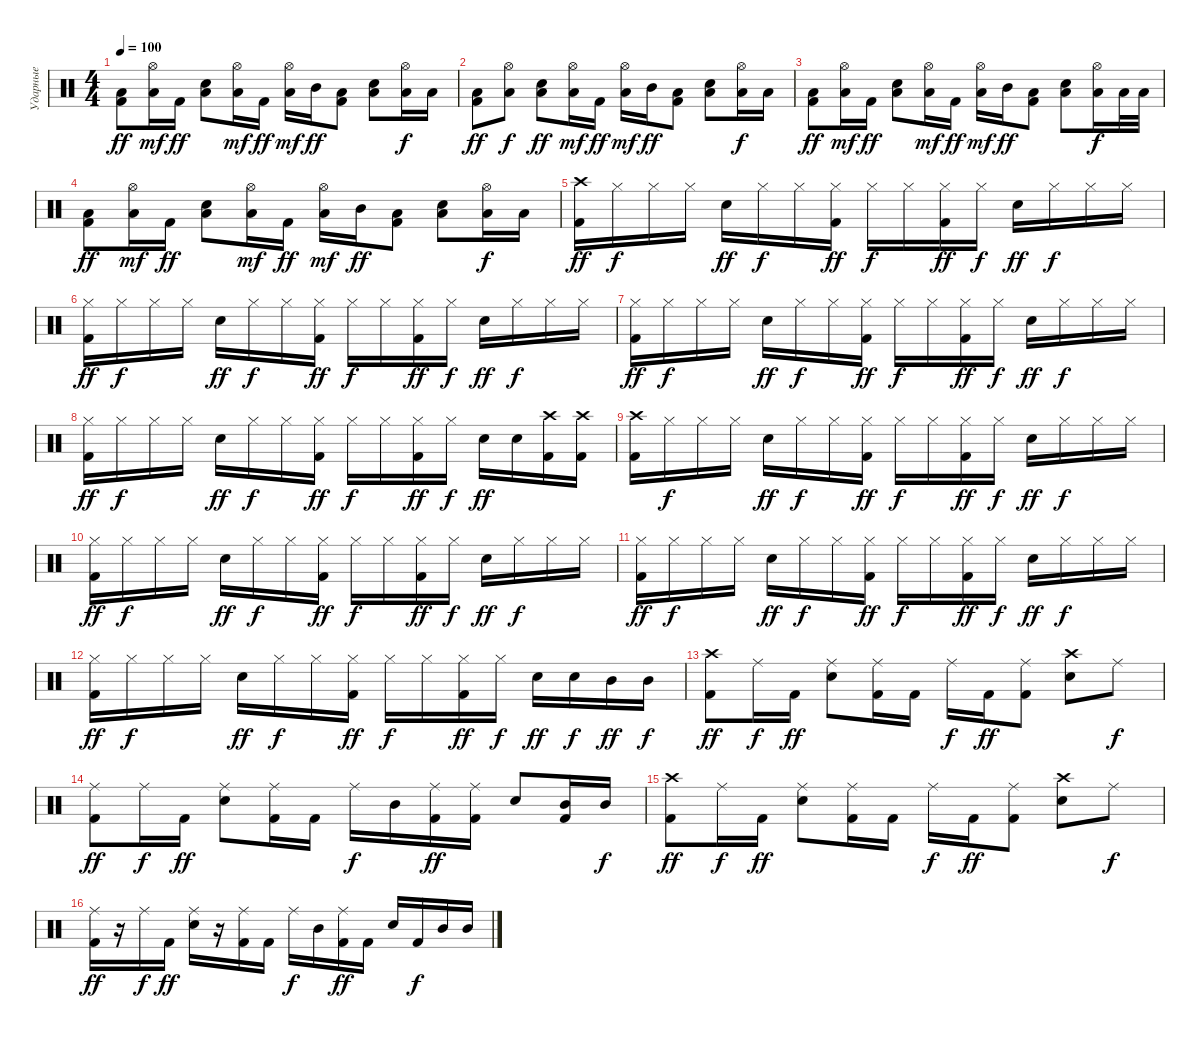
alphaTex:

\track ("Ударные" "Ударные") {instrument percussion}
\staff {score}
\articulation defaults
\ts (4 4)
\tempo 100
\clef neutral
\ks c
("Low Tom (hit)" "Kick (hit) 2").8{dy ff} ("Hi-Hat (open)" "Low Tom (hit)").16{dy mf} "Kick (hit) 2".16{dy ff} ("Low Tom (hit)" "Snare (hit) 2").8 ("Hi-Hat (open)" "Low Tom (hit)").16{dy mf} "Kick (hit) 2".16{dy ff} ("Hi-Hat (open)" "Low Tom (hit)").16{dy mf} "Mid Tom (hit)".16{dy ff} ("Low Tom (hit)" "Kick (hit) 2").8 ("Low Tom (hit)" "Snare (hit) 2").8 ("Hi-Hat (open)" "Low Tom (hit)").16{dy f} "Low Tom (hit)".16 |
("Low Tom (hit)" "Kick (hit) 2").8{dy ff} ("Hi-Hat (open)" "Low Tom (hit)").8{dy f} ("Low Tom (hit)" "Snare (hit) 2").8{dy ff} ("Hi-Hat (open)" "Low Tom (hit)").16{dy mf} "Kick (hit) 2".16{dy ff} ("Hi-Hat (open)" "Low Tom (hit)").16{dy mf} "Mid Tom (hit)".16{dy ff} ("Low Tom (hit)" "Kick (hit) 2").8 ("Low Tom (hit)" "Snare (hit) 2").8 ("Hi-Hat (open)" "Low Tom (hit)").16{dy f} "Low Tom (hit)".16 |
("Low Tom (hit)" "Kick (hit) 2").8{dy ff} ("Hi-Hat (open)" "Low Tom (hit)").16{dy mf} "Kick (hit) 2".16{dy ff} ("Low Tom (hit)" "Snare (hit) 2").8 ("Hi-Hat (open)" "Low Tom (hit)").16{dy mf} "Kick (hit) 2".16{dy ff} ("Hi-Hat (open)" "Low Tom (hit)").16{dy mf} "Mid Tom (hit)".16{dy ff} ("Low Tom (hit)" "Kick (hit) 2").8 ("Low Tom (hit)" "Snare (hit) 2").8 ("Hi-Hat (open)" "Low Tom (hit)").16{dy f} "Low Tom (hit)".32 "Low Tom (hit)".32 |
("Low Tom (hit)" "Kick (hit) 2").8{dy ff} ("Hi-Hat (open)" "Low Tom (hit)").16{dy mf} "Kick (hit) 2".16{dy ff} ("Low Tom (hit)" "Snare (hit) 2").8 ("Hi-Hat (open)" "Low Tom (hit)").16{dy mf} "Kick (hit) 2".16{dy ff} ("Hi-Hat (open)" "Low Tom (hit)").16{dy mf} "Mid Tom (hit)".16{dy ff} ("Low Tom (hit)" "Kick (hit) 2").8 ("Low Tom (hit)" "Snare (hit) 2").8 ("Hi-Hat (open)" "Low Floor Tom (hit)").16{dy f} "Low Floor Tom (hit)".16 |
("Crash high (hit)" "Kick (hit) 2").16{dy ff} "Hi-Hat (closed)".16{dy f} "Hi-Hat (closed)".16 "Hi-Hat (closed)".16 "Snare (hit) 2".16{dy ff} "Hi-Hat (closed)".16{dy f} "Hi-Hat (closed)".16 ("Hi-Hat (closed)" "Kick (hit) 2").16{dy ff} "Hi-Hat (closed)".16{dy f} "Hi-Hat (closed)".16 ("Hi-Hat (closed)" "Kick (hit) 2").16{dy ff} "Hi-Hat (closed)".16{dy f} "Snare (hit) 2".16{dy ff} "Hi-Hat (closed)".16{dy f} "Hi-Hat (closed)".16 "Hi-Hat (closed)".16 |
("Hi-Hat (closed)" "Kick (hit) 2").16{dy ff} "Hi-Hat (closed)".16{dy f} "Hi-Hat (closed)".16 "Hi-Hat (closed)".16 "Snare (hit) 2".16{dy ff} "Hi-Hat (closed)".16{dy f} "Hi-Hat (closed)".16 ("Hi-Hat (closed)" "Kick (hit) 2").16{dy ff} "Hi-Hat (closed)".16{dy f} "Hi-Hat (closed)".16 ("Hi-Hat (closed)" "Kick (hit) 2").16{dy ff} "Hi-Hat (closed)".16{dy f} "Snare (hit) 2".16{dy ff} "Hi-Hat (closed)".16{dy f} "Hi-Hat (closed)".16 "Hi-Hat (closed)".16 |
("Hi-Hat (closed)" "Kick (hit) 2").16{dy ff} "Hi-Hat (closed)".16{dy f} "Hi-Hat (closed)".16 "Hi-Hat (closed)".16 "Snare (hit) 2".16{dy ff} "Hi-Hat (closed)".16{dy f} "Hi-Hat (closed)".16 ("Hi-Hat (closed)" "Kick (hit) 2").16{dy ff} "Hi-Hat (closed)".16{dy f} "Hi-Hat (closed)".16 ("Hi-Hat (closed)" "Kick (hit) 2").16{dy ff} "Hi-Hat (closed)".16{dy f} "Snare (hit) 2".16{dy ff} "Hi-Hat (closed)".16{dy f} "Hi-Hat (closed)".16 "Hi-Hat (closed)".16 |
("Hi-Hat (closed)" "Kick (hit) 2").16{dy ff} "Hi-Hat (closed)".16{dy f} "Hi-Hat (closed)".16 "Hi-Hat (closed)".16 "Snare (hit) 2".16{dy ff} "Hi-Hat (closed)".16{dy f} "Hi-Hat (closed)".16 ("Hi-Hat (closed)" "Kick (hit) 2").16{dy ff} "Hi-Hat (closed)".16{dy f} "Hi-Hat (closed)".16 ("Hi-Hat (closed)" "Kick (hit) 2").16{dy ff} "Hi-Hat (closed)".16{dy f} "Snare (hit) 2".16{dy ff} "Snare (hit) 2".16 ("Crash high (hit)" "Kick (hit) 2").16 ("Crash high (hit)" "Kick (hit) 2").16 |
("Crash high (hit)" "Kick (hit) 2").16 "Hi-Hat (closed)".16{dy f} "Hi-Hat (closed)".16 "Hi-Hat (closed)".16 "Snare (hit) 2".16{dy ff} "Hi-Hat (closed)".16{dy f} "Hi-Hat (closed)".16 ("Hi-Hat (closed)" "Kick (hit) 2").16{dy ff} "Hi-Hat (closed)".16{dy f} "Hi-Hat (closed)".16 ("Hi-Hat (closed)" "Kick (hit) 2").16{dy ff} "Hi-Hat (closed)".16{dy f} "Snare (hit) 2".16{dy ff} "Hi-Hat (closed)".16{dy f} "Hi-Hat (closed)".16 "Hi-Hat (closed)".16 |
("Hi-Hat (closed)" "Kick (hit) 2").16{dy ff} "Hi-Hat (closed)".16{dy f} "Hi-Hat (closed)".16 "Hi-Hat (closed)".16 "Snare (hit) 2".16{dy ff} "Hi-Hat (closed)".16{dy f} "Hi-Hat (closed)".16 ("Hi-Hat (closed)" "Kick (hit) 2").16{dy ff} "Hi-Hat (closed)".16{dy f} "Hi-Hat (closed)".16 ("Hi-Hat (closed)" "Kick (hit) 2").16{dy ff} "Hi-Hat (closed)".16{dy f} "Snare (hit) 2".16{dy ff} "Hi-Hat (closed)".16{dy f} "Hi-Hat (closed)".16 "Hi-Hat (closed)".16 |
("Hi-Hat (closed)" "Kick (hit) 2").16{dy ff} "Hi-Hat (closed)".16{dy f} "Hi-Hat (closed)".16 "Hi-Hat (closed)".16 "Snare (hit) 2".16{dy ff} "Hi-Hat (closed)".16{dy f} "Hi-Hat (closed)".16 ("Hi-Hat (closed)" "Kick (hit) 2").16{dy ff} "Hi-Hat (closed)".16{dy f} "Hi-Hat (closed)".16 ("Hi-Hat (closed)" "Kick (hit) 2").16{dy ff} "Hi-Hat (closed)".16{dy f} "Snare (hit) 2".16{dy ff} "Hi-Hat (closed)".16{dy f} "Hi-Hat (closed)".16 "Hi-Hat (closed)".16 |
("Hi-Hat (closed)" "Kick (hit) 2").16{dy ff} "Hi-Hat (closed)".16{dy f} "Hi-Hat (closed)".16 "Hi-Hat (closed)".16 "Snare (hit) 2".16{dy ff} "Hi-Hat (closed)".16{dy f} "Hi-Hat (closed)".16 ("Hi-Hat (closed)" "Kick (hit) 2").16{dy ff} "Hi-Hat (closed)".16{dy f} "Hi-Hat (closed)".16 ("Hi-Hat (closed)" "Kick (hit) 2").16{dy ff} "Hi-Hat (closed)".16{dy f} "Snare (hit) 2".16{dy ff} "Snare (hit) 2".16{dy f} "Mid Tom (hit)".16{dy ff} "Mid Tom (hit)".16{dy f} |
("Crash high (hit)" "Kick (hit) 2").8{dy ff} "Ride (middle)".16{dy f} "Kick (hit) 2".16{dy ff} ("Ride (middle)" "Snare (hit) 2").8 ("Ride (middle)" "Kick (hit) 2").16 "Kick (hit) 2".16 "Ride (middle)".16{dy f} "Kick (hit) 2".16{dy ff} ("Ride (middle)" "Kick (hit) 2").8 ("Crash high (hit)" "Snare (hit) 2").8 "Ride (middle)".8{dy f} |
("Ride (middle)" "Kick (hit) 2").8{dy ff} "Ride (middle)".16{dy f} "Kick (hit) 2".16{dy ff} ("Ride (middle)" "Snare (hit) 2").8 ("Ride (middle)" "Kick (hit) 2").16 "Kick (hit) 2".16 "Ride (middle)".16{dy f} "Mid Tom (hit)".16 ("Ride (middle)" "Kick (hit) 2").16{dy ff} ("Ride (middle)" "Kick (hit) 2").16 "Snare (hit) 2".8 ("Mid Tom (hit)" "Kick (hit) 2").16 "Mid Tom (hit)".16{dy f} |
("Crash high (hit)" "Kick (hit) 2").8{dy ff} "Ride (middle)".16{dy f} "Kick (hit) 2".16{dy ff} ("Ride (middle)" "Snare (hit) 2").8 ("Ride (middle)" "Kick (hit) 2").16 "Kick (hit) 2".16 "Ride (middle)".16{dy f} "Kick (hit) 2".16{dy ff} ("Ride (middle)" "Kick (hit) 2").8 ("Crash high (hit)" "Snare (hit) 2").8 "Ride (middle)".8{dy f} |
("Ride (middle)" "Kick (hit) 2").16{dy ff} r.16 "Ride (middle)".16{dy f} "Kick (hit) 2".16{dy ff} ("Ride (middle)" "Snare (hit) 2").16 r.16 ("Ride (middle)" "Kick (hit) 2").16 "Kick (hit) 2".16 "Ride (middle)".16{dy f} "Mid Tom (hit)".16 ("Ride (middle)" "Kick (hit) 2").16{dy ff} "Kick (hit) 2".16 "Snare (hit) 2".16 "Kick (hit) 2".16{dy f} "Mid Tom (hit)".16 "Mid Tom (hit)".16
